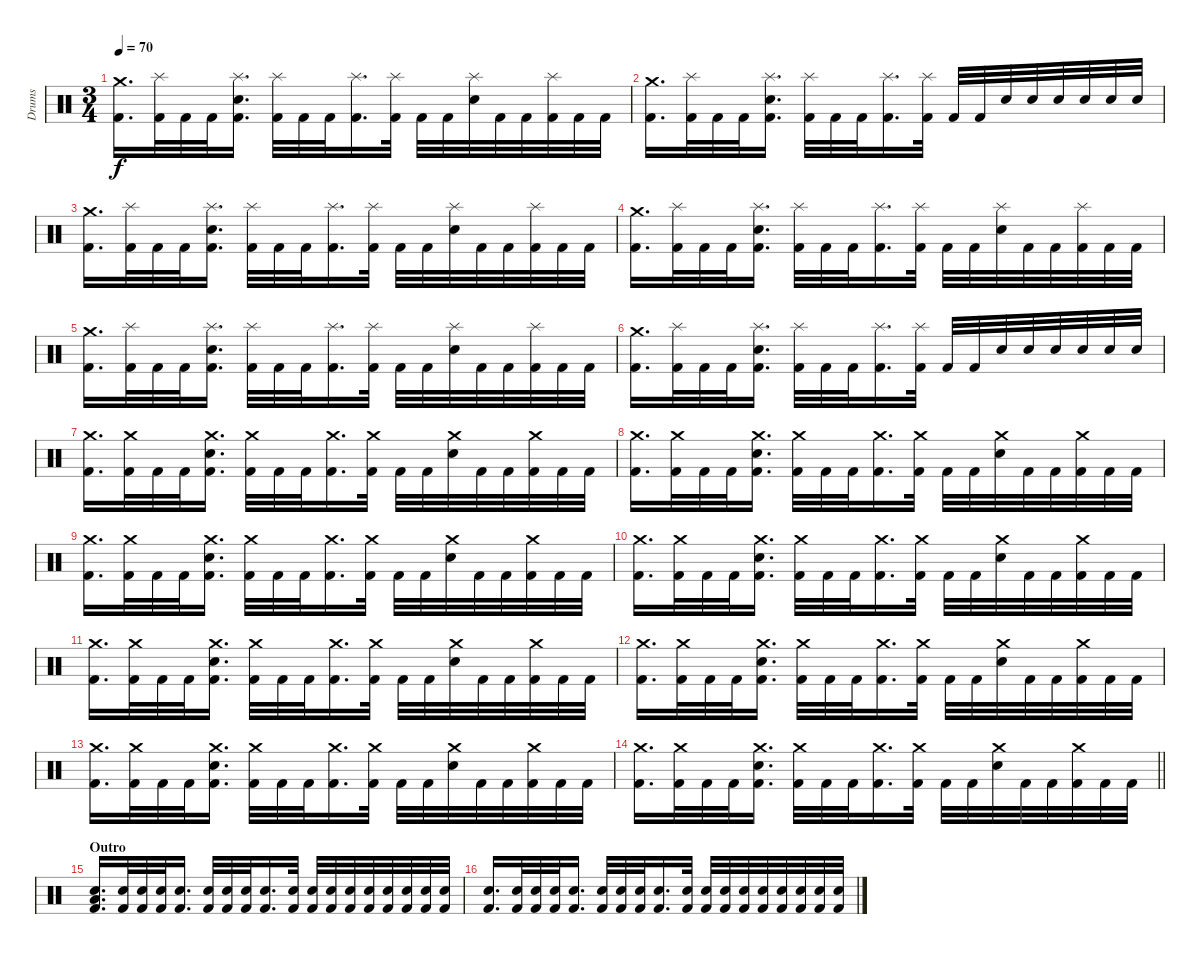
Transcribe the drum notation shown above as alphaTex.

\track ("Drums" "Drums") {instrument percussion}
\staff {score}
\articulation defaults
\ts (3 4)
\tempo 70
\clef neutral
\ks c
("Crash medium (hit)" "Kick (hit) 2").16{d dy f} ("Splash (hit)" "Kick (hit) 2").32 "Kick (hit) 2".32 "Kick (hit) 2".32 ("Splash (hit)" "Electric Snare (hit)" "Kick (hit) 2").16{d} ("Splash (hit)" "Kick (hit) 2").32 "Kick (hit) 2".32 "Kick (hit) 2".32 ("Splash (hit)" "Kick (hit) 2").16{d} ("Splash (hit)" "Kick (hit) 2").32 "Kick (hit) 2".32 "Kick (hit) 2".32 ("Splash (hit)" "Electric Snare (hit)").32 "Kick (hit) 2".32 "Kick (hit) 2".32 ("Splash (hit)" "Kick (hit) 2").32 "Kick (hit) 2".32 "Kick (hit) 2".32 |
("Crash medium (hit)" "Kick (hit) 2").16{d} ("Splash (hit)" "Kick (hit) 2").32 "Kick (hit) 2".32 "Kick (hit) 2".32 ("Splash (hit)" "Electric Snare (hit)" "Kick (hit) 2").16{d} ("Splash (hit)" "Kick (hit) 2").32 "Kick (hit) 2".32 "Kick (hit) 2".32 ("Splash (hit)" "Kick (hit) 2").16{d} ("Splash (hit)" "Kick (hit) 2").32 "Kick (hit) 2".32 "Kick (hit) 2".32 "Electric Snare (hit)".32 "Electric Snare (hit)".32 "Electric Snare (hit)".32 "Electric Snare (hit)".32 "Electric Snare (hit)".32 "Electric Snare (hit)".32 |
("Crash medium (hit)" "Kick (hit) 2").16{d} ("Splash (hit)" "Kick (hit) 2").32 "Kick (hit) 2".32 "Kick (hit) 2".32 ("Splash (hit)" "Electric Snare (hit)" "Kick (hit) 2").16{d} ("Splash (hit)" "Kick (hit) 2").32 "Kick (hit) 2".32 "Kick (hit) 2".32 ("Splash (hit)" "Kick (hit) 2").16{d} ("Splash (hit)" "Kick (hit) 2").32 "Kick (hit) 2".32 "Kick (hit) 2".32 ("Splash (hit)" "Electric Snare (hit)").32 "Kick (hit) 2".32 "Kick (hit) 2".32 ("Splash (hit)" "Kick (hit) 2").32 "Kick (hit) 2".32 "Kick (hit) 2".32 |
("Crash medium (hit)" "Kick (hit) 2").16{d} ("Splash (hit)" "Kick (hit) 2").32 "Kick (hit) 2".32 "Kick (hit) 2".32 ("Splash (hit)" "Electric Snare (hit)" "Kick (hit) 2").16{d} ("Splash (hit)" "Kick (hit) 2").32 "Kick (hit) 2".32 "Kick (hit) 2".32 ("Splash (hit)" "Kick (hit) 2").16{d} ("Splash (hit)" "Kick (hit) 2").32 "Kick (hit) 2".32 "Kick (hit) 2".32 ("Splash (hit)" "Electric Snare (hit)").32 "Kick (hit) 2".32 "Kick (hit) 2".32 ("Splash (hit)" "Kick (hit) 2").32 "Kick (hit) 2".32 "Kick (hit) 2".32 |
("Crash medium (hit)" "Kick (hit) 2").16{d} ("Splash (hit)" "Kick (hit) 2").32 "Kick (hit) 2".32 "Kick (hit) 2".32 ("Splash (hit)" "Electric Snare (hit)" "Kick (hit) 2").16{d} ("Splash (hit)" "Kick (hit) 2").32 "Kick (hit) 2".32 "Kick (hit) 2".32 ("Splash (hit)" "Kick (hit) 2").16{d} ("Splash (hit)" "Kick (hit) 2").32 "Kick (hit) 2".32 "Kick (hit) 2".32 ("Splash (hit)" "Electric Snare (hit)").32 "Kick (hit) 2".32 "Kick (hit) 2".32 ("Splash (hit)" "Kick (hit) 2").32 "Kick (hit) 2".32 "Kick (hit) 2".32 |
("Crash medium (hit)" "Kick (hit) 2").16{d} ("Splash (hit)" "Kick (hit) 2").32 "Kick (hit) 2".32 "Kick (hit) 2".32 ("Splash (hit)" "Electric Snare (hit)" "Kick (hit) 2").16{d} ("Splash (hit)" "Kick (hit) 2").32 "Kick (hit) 2".32 "Kick (hit) 2".32 ("Splash (hit)" "Kick (hit) 2").16{d} ("Splash (hit)" "Kick (hit) 2").32 "Kick (hit) 2".32 "Kick (hit) 2".32 "Electric Snare (hit)".32 "Electric Snare (hit)".32 "Electric Snare (hit)".32 "Electric Snare (hit)".32 "Electric Snare (hit)".32 "Electric Snare (hit)".32 |
("Crash medium (hit)" "Kick (hit) 2").16{d} ("Crash medium (hit)" "Kick (hit) 2").32 "Kick (hit) 2".32 "Kick (hit) 2".32 ("Crash medium (hit)" "Electric Snare (hit)" "Kick (hit) 2").16{d} ("Crash medium (hit)" "Kick (hit) 2").32 "Kick (hit) 2".32 "Kick (hit) 2".32 ("Crash medium (hit)" "Kick (hit) 2").16{d} ("Crash medium (hit)" "Kick (hit) 2").32 "Kick (hit) 2".32 "Kick (hit) 2".32 ("Crash medium (hit)" "Electric Snare (hit)").32 "Kick (hit) 2".32 "Kick (hit) 2".32 ("Crash medium (hit)" "Kick (hit) 2").32 "Kick (hit) 2".32 "Kick (hit) 2".32 |
("Crash medium (hit)" "Kick (hit) 2").16{d} ("Crash medium (hit)" "Kick (hit) 2").32 "Kick (hit) 2".32 "Kick (hit) 2".32 ("Crash medium (hit)" "Electric Snare (hit)" "Kick (hit) 2").16{d} ("Crash medium (hit)" "Kick (hit) 2").32 "Kick (hit) 2".32 "Kick (hit) 2".32 ("Crash medium (hit)" "Kick (hit) 2").16{d} ("Crash medium (hit)" "Kick (hit) 2").32 "Kick (hit) 2".32 "Kick (hit) 2".32 ("Crash medium (hit)" "Electric Snare (hit)").32 "Kick (hit) 2".32 "Kick (hit) 2".32 ("Crash medium (hit)" "Kick (hit) 2").32 "Kick (hit) 2".32 "Kick (hit) 2".32 |
("Crash medium (hit)" "Kick (hit) 2").16{d} ("Crash medium (hit)" "Kick (hit) 2").32 "Kick (hit) 2".32 "Kick (hit) 2".32 ("Crash medium (hit)" "Electric Snare (hit)" "Kick (hit) 2").16{d} ("Crash medium (hit)" "Kick (hit) 2").32 "Kick (hit) 2".32 "Kick (hit) 2".32 ("Crash medium (hit)" "Kick (hit) 2").16{d} ("Crash medium (hit)" "Kick (hit) 2").32 "Kick (hit) 2".32 "Kick (hit) 2".32 ("Crash medium (hit)" "Electric Snare (hit)").32 "Kick (hit) 2".32 "Kick (hit) 2".32 ("Crash medium (hit)" "Kick (hit) 2").32 "Kick (hit) 2".32 "Kick (hit) 2".32 |
("Crash medium (hit)" "Kick (hit) 2").16{d} ("Crash medium (hit)" "Kick (hit) 2").32 "Kick (hit) 2".32 "Kick (hit) 2".32 ("Crash medium (hit)" "Electric Snare (hit)" "Kick (hit) 2").16{d} ("Crash medium (hit)" "Kick (hit) 2").32 "Kick (hit) 2".32 "Kick (hit) 2".32 ("Crash medium (hit)" "Kick (hit) 2").16{d} ("Crash medium (hit)" "Kick (hit) 2").32 "Kick (hit) 2".32 "Kick (hit) 2".32 ("Crash medium (hit)" "Electric Snare (hit)").32 "Kick (hit) 2".32 "Kick (hit) 2".32 ("Crash medium (hit)" "Kick (hit) 2").32 "Kick (hit) 2".32 "Kick (hit) 2".32 |
("Crash medium (hit)" "Kick (hit) 2").16{d} ("Crash medium (hit)" "Kick (hit) 2").32 "Kick (hit) 2".32 "Kick (hit) 2".32 ("Crash medium (hit)" "Electric Snare (hit)" "Kick (hit) 2").16{d} ("Crash medium (hit)" "Kick (hit) 2").32 "Kick (hit) 2".32 "Kick (hit) 2".32 ("Crash medium (hit)" "Kick (hit) 2").16{d} ("Crash medium (hit)" "Kick (hit) 2").32 "Kick (hit) 2".32 "Kick (hit) 2".32 ("Crash medium (hit)" "Electric Snare (hit)").32 "Kick (hit) 2".32 "Kick (hit) 2".32 ("Crash medium (hit)" "Kick (hit) 2").32 "Kick (hit) 2".32 "Kick (hit) 2".32 |
("Crash medium (hit)" "Kick (hit) 2").16{d} ("Crash medium (hit)" "Kick (hit) 2").32 "Kick (hit) 2".32 "Kick (hit) 2".32 ("Crash medium (hit)" "Electric Snare (hit)" "Kick (hit) 2").16{d} ("Crash medium (hit)" "Kick (hit) 2").32 "Kick (hit) 2".32 "Kick (hit) 2".32 ("Crash medium (hit)" "Kick (hit) 2").16{d} ("Crash medium (hit)" "Kick (hit) 2").32 "Kick (hit) 2".32 "Kick (hit) 2".32 ("Crash medium (hit)" "Electric Snare (hit)").32 "Kick (hit) 2".32 "Kick (hit) 2".32 ("Crash medium (hit)" "Kick (hit) 2").32 "Kick (hit) 2".32 "Kick (hit) 2".32 |
("Crash medium (hit)" "Kick (hit) 2").16{d} ("Crash medium (hit)" "Kick (hit) 2").32 "Kick (hit) 2".32 "Kick (hit) 2".32 ("Crash medium (hit)" "Electric Snare (hit)" "Kick (hit) 2").16{d} ("Crash medium (hit)" "Kick (hit) 2").32 "Kick (hit) 2".32 "Kick (hit) 2".32 ("Crash medium (hit)" "Kick (hit) 2").16{d} ("Crash medium (hit)" "Kick (hit) 2").32 "Kick (hit) 2".32 "Kick (hit) 2".32 ("Crash medium (hit)" "Electric Snare (hit)").32 "Kick (hit) 2".32 "Kick (hit) 2".32 ("Crash medium (hit)" "Kick (hit) 2").32 "Kick (hit) 2".32 "Kick (hit) 2".32 |
\barLineRight lightlight
("Crash medium (hit)" "Kick (hit) 2").16{d} ("Crash medium (hit)" "Kick (hit) 2").32 "Kick (hit) 2".32 "Kick (hit) 2".32 ("Crash medium (hit)" "Electric Snare (hit)" "Kick (hit) 2").16{d} ("Crash medium (hit)" "Kick (hit) 2").32 "Kick (hit) 2".32 "Kick (hit) 2".32 ("Crash medium (hit)" "Kick (hit) 2").16{d} ("Crash medium (hit)" "Kick (hit) 2").32 "Kick (hit) 2".32 "Kick (hit) 2".32 ("Crash medium (hit)" "Electric Snare (hit)").32 "Kick (hit) 2".32 "Kick (hit) 2".32 ("Crash medium (hit)" "Kick (hit) 2").32 "Kick (hit) 2".32 "Kick (hit) 2".32 |
\section ("" "Outro")
("Low Floor Tom (hit)" "Electric Snare (hit)" "Kick (hit) 2").16{d} ("Electric Snare (hit)" "Kick (hit) 2").32 ("Electric Snare (hit)" "Kick (hit) 2").32 ("Electric Snare (hit)" "Kick (hit) 2").32 ("Electric Snare (hit)" "Kick (hit) 2").16{d} ("Electric Snare (hit)" "Kick (hit) 2").32 ("Electric Snare (hit)" "Kick (hit) 2").32 ("Electric Snare (hit)" "Kick (hit) 2").32 ("Electric Snare (hit)" "Kick (hit) 2").16{d} ("Electric Snare (hit)" "Kick (hit) 2").32 ("Electric Snare (hit)" "Kick (hit) 2").32 ("Electric Snare (hit)" "Kick (hit) 2").32 ("Electric Snare (hit)" "Kick (hit) 2").32 ("Electric Snare (hit)" "Kick (hit) 2").32 ("Electric Snare (hit)" "Kick (hit) 2").32 ("Electric Snare (hit)" "Kick (hit) 2").32 ("Electric Snare (hit)" "Kick (hit) 2").32 ("Electric Snare (hit)" "Kick (hit) 2").32 |
("Electric Snare (hit)" "Kick (hit) 2").16{d} ("Electric Snare (hit)" "Kick (hit) 2").32 ("Electric Snare (hit)" "Kick (hit) 2").32 ("Electric Snare (hit)" "Kick (hit) 2").32 ("Electric Snare (hit)" "Kick (hit) 2").16{d} ("Electric Snare (hit)" "Kick (hit) 2").32 ("Electric Snare (hit)" "Kick (hit) 2").32 ("Electric Snare (hit)" "Kick (hit) 2").32 ("Electric Snare (hit)" "Kick (hit) 2").16{d} ("Electric Snare (hit)" "Kick (hit) 2").32 ("Electric Snare (hit)" "Kick (hit) 2").32 ("Electric Snare (hit)" "Kick (hit) 2").32 ("Electric Snare (hit)" "Kick (hit) 2").32 ("Electric Snare (hit)" "Kick (hit) 2").32 ("Electric Snare (hit)" "Kick (hit) 2").32 ("Electric Snare (hit)" "Kick (hit) 2").32 ("Electric Snare (hit)" "Kick (hit) 2").32 ("Electric Snare (hit)" "Kick (hit) 2").32
